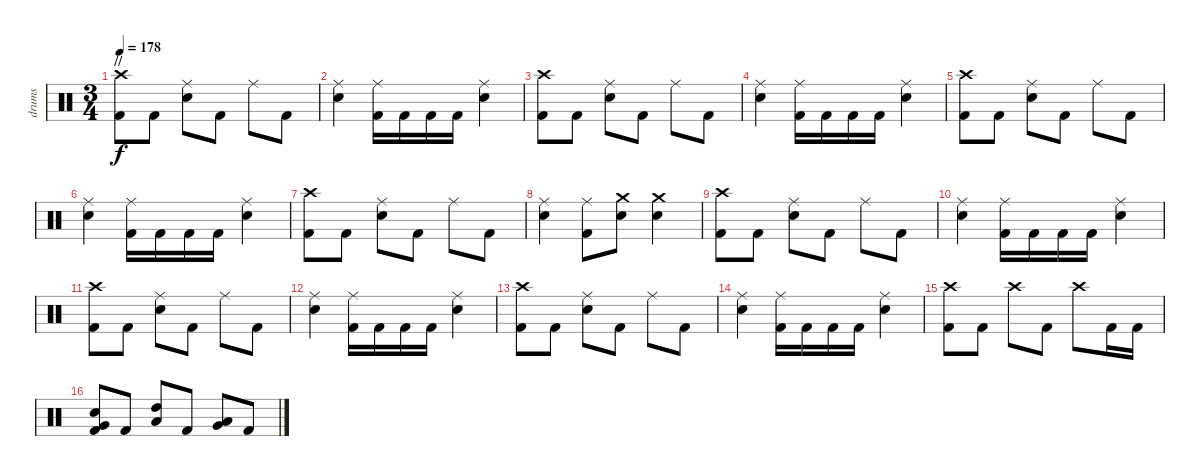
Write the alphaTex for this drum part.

\track ("drums" "drums") {instrument percussion}
\staff {score}
\articulation defaults
\ts (3 4)
\section ("" "//")
\tempo 178
\clef neutral
\ks c
("Crash high (hit)" "Kick (hit) 2").8{dy f} "Kick (hit) 2".8 ("Ride (middle)" "Electric Snare (hit)").8 "Kick (hit) 2".8 "Ride (middle)".8 "Kick (hit) 2".8 |
("Ride (middle)" "Electric Snare (hit)").4 ("Ride (middle)" "Kick (hit) 2").16 "Kick (hit) 2".16 "Kick (hit) 2".16 "Kick (hit) 2".16 ("Ride (middle)" "Electric Snare (hit)").4 |
("Crash high (hit)" "Kick (hit) 2").8 "Kick (hit) 2".8 ("Ride (middle)" "Electric Snare (hit)").8 "Kick (hit) 2".8 "Ride (middle)".8 "Kick (hit) 2".8 |
("Ride (middle)" "Electric Snare (hit)").4 ("Ride (middle)" "Kick (hit) 2").16 "Kick (hit) 2".16 "Kick (hit) 2".16 "Kick (hit) 2".16 ("Ride (middle)" "Electric Snare (hit)").4 |
("Crash high (hit)" "Kick (hit) 2").8 "Kick (hit) 2".8 ("Ride (middle)" "Electric Snare (hit)").8 "Kick (hit) 2".8 "Ride (middle)".8 "Kick (hit) 2".8 |
("Ride (middle)" "Electric Snare (hit)").4 ("Ride (middle)" "Kick (hit) 2").16 "Kick (hit) 2".16 "Kick (hit) 2".16 "Kick (hit) 2".16 ("Ride (middle)" "Electric Snare (hit)").4 |
("Crash high (hit)" "Kick (hit) 2").8 "Kick (hit) 2".8 ("Ride (middle)" "Electric Snare (hit)").8 "Kick (hit) 2".8 "Ride (middle)".8 "Kick (hit) 2".8 |
("Ride (middle)" "Electric Snare (hit)").4 ("Ride (middle)" "Kick (hit) 2").8 ("Crash medium (hit)" "Electric Snare (hit)").8 ("Crash medium (hit)" "Electric Snare (hit)").4 |
("Crash high (hit)" "Kick (hit) 2").8 "Kick (hit) 2".8 ("Ride (middle)" "Electric Snare (hit)").8 "Kick (hit) 2".8 "Ride (middle)".8 "Kick (hit) 2".8 |
("Ride (middle)" "Electric Snare (hit)").4 ("Ride (middle)" "Kick (hit) 2").16 "Kick (hit) 2".16 "Kick (hit) 2".16 "Kick (hit) 2".16 ("Ride (middle)" "Electric Snare (hit)").4 |
("Crash high (hit)" "Kick (hit) 2").8 "Kick (hit) 2".8 ("Ride (middle)" "Electric Snare (hit)").8 "Kick (hit) 2".8 "Ride (middle)".8 "Kick (hit) 2".8 |
("Ride (middle)" "Electric Snare (hit)").4 ("Ride (middle)" "Kick (hit) 2").16 "Kick (hit) 2".16 "Kick (hit) 2".16 "Kick (hit) 2".16 ("Ride (middle)" "Electric Snare (hit)").4 |
("Crash high (hit)" "Kick (hit) 2").8 "Kick (hit) 2".8 ("Ride (middle)" "Electric Snare (hit)").8 "Kick (hit) 2".8 "Ride (middle)".8 "Kick (hit) 2".8 |
("Ride (middle)" "Electric Snare (hit)").4 ("Ride (middle)" "Kick (hit) 2").16 "Kick (hit) 2".16 "Kick (hit) 2".16 "Kick (hit) 2".16 ("Ride (middle)" "Electric Snare (hit)").4 |
("Crash high (hit)" "Kick (hit) 2").8 "Kick (hit) 2".8 "Crash high (hit)".8 "Kick (hit) 2".8 "Crash high (hit)".8 "Kick (hit) 2".16 "Kick (hit) 2".16 |
("Very Low Tom (hit)" "Electric Snare (hit)" "Kick (hit) 2").8 "Kick (hit) 2".8 ("High Tom (hit)" "Low Tom (hit)").8 "Kick (hit) 2".8 ("Very Low Tom (hit)" "Low Tom (hit)").8 "Kick (hit) 2".8
